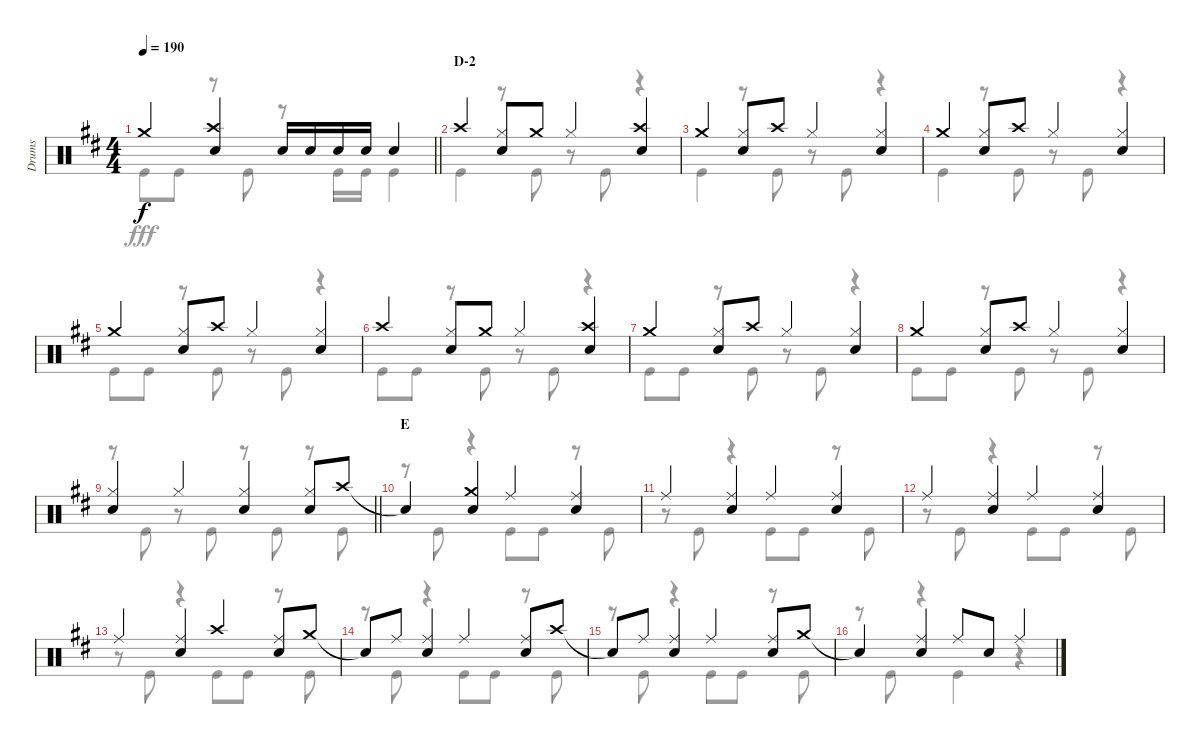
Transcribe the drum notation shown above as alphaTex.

\track ("Drums" "Drums") {instrument percussion}
\staff {score}
\articulation defaults
\voice
\ts (4 4)
\tempo 190
\clef neutral
\barLineRight lightlight
\ks d "Crash medium (hit)".4{dy f}
("Crash high (hit)" "Snare (hit) 2").4 "Snare (hit) 2".16 "Snare (hit) 2".16 "Snare (hit) 2".16 "Snare (hit) 2".16 "Snare (hit) 2".4 |
\section ("" "D-2")
"Crash high (hit)".4 ("Hi-Hat (closed)" "Snare (hit) 2").8 "Crash medium (hit)".8 "Hi-Hat (closed)".4 ("Crash high (hit)" "Snare (hit) 2").4 |
"Crash medium (hit)".4 ("Hi-Hat (closed)" "Snare (hit) 2").8 "Crash high (hit)".8 "Hi-Hat (closed)".4 ("Hi-Hat (closed)" "Snare (hit) 2").4 |
"Crash medium (hit)".4 ("Hi-Hat (closed)" "Snare (hit) 2").8 "Crash high (hit)".8 "Hi-Hat (closed)".4 ("Hi-Hat (closed)" "Snare (hit) 2").4 |
"Crash medium (hit)".4 ("Hi-Hat (closed)" "Snare (hit) 2").8 "Crash high (hit)".8 "Hi-Hat (closed)".4 ("Hi-Hat (closed)" "Snare (hit) 2").4 |
"Crash high (hit)".4 ("Hi-Hat (closed)" "Snare (hit) 2").8 "Crash medium (hit)".8 "Hi-Hat (closed)".4 ("Crash high (hit)" "Snare (hit) 2").4 |
"Crash medium (hit)".4 ("Hi-Hat (closed)" "Snare (hit) 2").8 "Crash high (hit)".8 "Hi-Hat (closed)".4 ("Hi-Hat (closed)" "Snare (hit) 2").4 |
"Crash medium (hit)".4 ("Hi-Hat (closed)" "Snare (hit) 2").8 "Crash high (hit)".8 "Hi-Hat (closed)".4 ("Hi-Hat (closed)" "Snare (hit) 2").4 |
\barLineRight lightlight
("Hi-Hat (closed)" "Snare (hit) 2").4 "Hi-Hat (closed)".4 ("Hi-Hat (closed)" "Snare (hit) 2").4 ("Hi-Hat (closed)" "Snare (hit) 2").8 "Crash high (hit)".8 |
\section ("" "E")
"Snare (hit)"{t}.4 ("Crash medium (hit)" "Snare (hit) 2").4 "Ride (middle)".4 ("Ride (middle)" "Snare (hit) 2").4 |
"Ride (middle)".4 ("Ride (middle)" "Snare (hit) 2").4 "Ride (middle)".4 ("Ride (middle)" "Snare (hit) 2").4 |
"Ride (middle)".4 ("Ride (middle)" "Snare (hit) 2").4 "Ride (middle)".4 ("Ride (middle)" "Snare (hit) 2").4 |
"Ride (middle)".4 ("Ride (middle)" "Snare (hit) 2").4 "Crash high (hit)".4 ("Ride (middle)" "Snare (hit) 2").8 "Crash medium (hit)".8 |
"Snare (hit)"{t}.8 "Ride (middle)".8 ("Ride (middle)" "Snare (hit) 2").4 "Ride (middle)".4 ("Ride (middle)" "Snare (hit) 2").8 "Crash high (hit)".8 |
"Snare (hit)"{t}.8 "Ride (middle)".8 ("Ride (middle)" "Snare (hit) 2").4 "Ride (middle)".4 ("Ride (middle)" "Snare (hit) 2").8 "Crash medium (hit)".8 |
"Snare (hit)"{t}.4 ("Ride (middle)" "Snare (hit) 2").4 "Ride (middle)".8 "Snare (hit) 2".8 "Ride (middle)".4
\voice
\clef neutral
\ottava regular
\simile none
\barLineRight lightlight
\ks d "Kick (hit)".8{dy fff} "Kick (hit)".8
r.8 "Kick (hit)".8 r.8 "Kick (hit)".16 "Kick (hit)".16 "Kick (hit)".4 |
"Kick (hit)".4 r.8 "Kick (hit)".8 r.8 "Kick (hit)".8 r.4 |
"Kick (hit)".4 r.8 "Kick (hit)".8 r.8 "Kick (hit)".8 r.4 |
"Kick (hit)".4 r.8 "Kick (hit)".8 r.8 "Kick (hit)".8 r.4 |
"Kick (hit)".8 "Kick (hit)".8 r.8 "Kick (hit)".8 r.8 "Kick (hit)".8 r.4 |
"Kick (hit)".8 "Kick (hit)".8 r.8 "Kick (hit)".8 r.8 "Kick (hit)".8 r.4 |
"Kick (hit)".8 "Kick (hit)".8 r.8 "Kick (hit)".8 r.8 "Kick (hit)".8 r.4 |
"Kick (hit)".8 "Kick (hit)".8 r.8 "Kick (hit)".8 r.8 "Kick (hit)".8 r.4 |
\barLineRight lightlight
r.8 "Kick (hit)".8 r.8 "Kick (hit)".8 r.8 "Kick (hit)".8 r.8 "Kick (hit)".8 |
r.8 "Kick (hit)".8 r.4 "Kick (hit)".8 "Kick (hit)".8 r.8 "Kick (hit)".8 |
r.8 "Kick (hit)".8 r.4 "Kick (hit)".8 "Kick (hit)".8 r.8 "Kick (hit)".8 |
r.8 "Kick (hit)".8 r.4 "Kick (hit)".8 "Kick (hit)".8 r.8 "Kick (hit)".8 |
r.8 "Kick (hit)".8 r.4 "Kick (hit)".8 "Kick (hit)".8 r.8 "Kick (hit)".8 |
r.8 "Kick (hit)".8 r.4 "Kick (hit)".8 "Kick (hit)".8 r.8 "Kick (hit)".8 |
r.8 "Kick (hit)".8 r.4 "Kick (hit)".8 "Kick (hit)".8 r.8 "Kick (hit)".8 |
r.8 "Kick (hit)".8 r.4 "Kick (hit)".4 r.4
